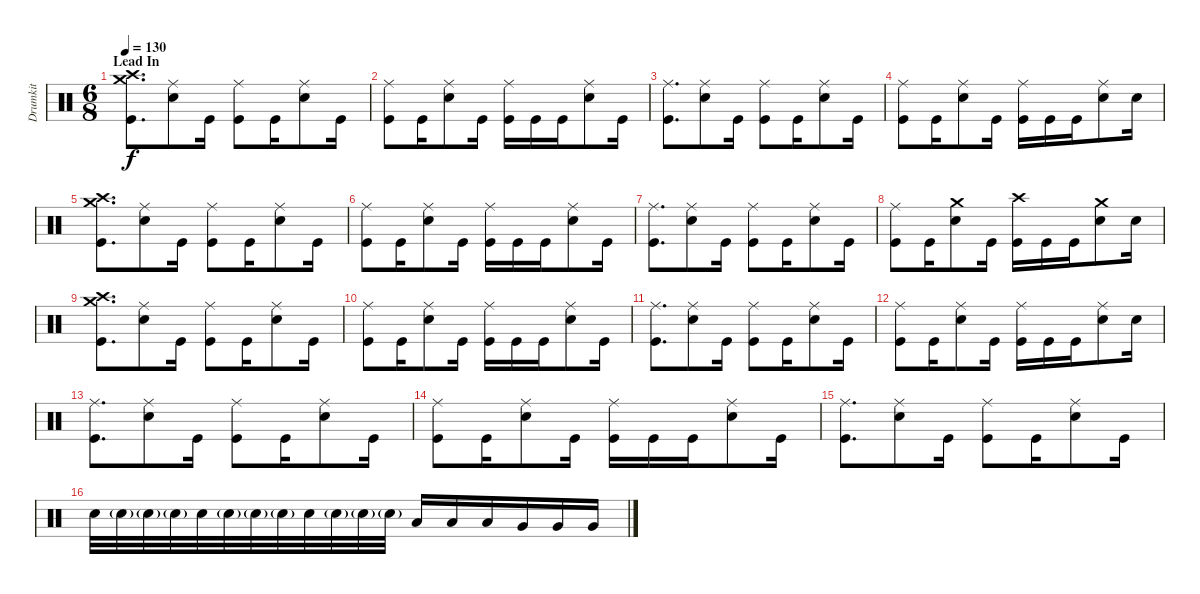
\track ("Drumkit" "Drumkit") {instrument percussion}
\staff {score}
\articulation defaults
\ts (6 8)
\section ("" "Lead In")
\tempo 130
\clef neutral
\ks c
("Kick (hit)" "Crash high (hit)" "Crash medium (hit)").8{d dy f} ("Snare (hit) 2" "Ride (middle)").8 "Kick (hit)".16 ("Kick (hit)" "Ride (middle)").8 "Kick (hit)".16 ("Snare (hit) 2" "Ride (middle)").8 "Kick (hit)".16 |
("Kick (hit)" "Ride (middle)").8 "Kick (hit)".16 ("Snare (hit) 2" "Ride (middle)").8 "Kick (hit)".16 ("Kick (hit)" "Ride (middle)").16 "Kick (hit)".16 "Kick (hit)".16 ("Snare (hit) 2" "Ride (middle)").8 "Kick (hit)".16 |
("Kick (hit)" "Ride (middle)").8{d} ("Snare (hit) 2" "Ride (middle)").8 "Kick (hit)".16 ("Kick (hit)" "Ride (middle)").8 "Kick (hit)".16 ("Snare (hit) 2" "Ride (middle)").8 "Kick (hit)".16 |
("Kick (hit)" "Ride (middle)").8 "Kick (hit)".16 ("Snare (hit) 2" "Ride (middle)").8 "Kick (hit)".16 ("Kick (hit)" "Ride (middle)").16 "Kick (hit)".16 "Kick (hit)".16 ("Snare (hit) 2" "Ride (middle)").8 "Snare (hit) 2".16 |
("Kick (hit)" "Crash high (hit)" "Crash medium (hit)").8{d} ("Snare (hit) 2" "Ride (middle)").8 "Kick (hit)".16 ("Kick (hit)" "Ride (middle)").8 "Kick (hit)".16 ("Snare (hit) 2" "Ride (middle)").8 "Kick (hit)".16 |
("Kick (hit)" "Ride (middle)").8 "Kick (hit)".16 ("Snare (hit) 2" "Ride (middle)").8 "Kick (hit)".16 ("Kick (hit)" "Ride (middle)").16 "Kick (hit)".16 "Kick (hit)".16 ("Snare (hit) 2" "Ride (middle)").8 "Kick (hit)".16 |
("Kick (hit)" "Ride (middle)").8{d} ("Snare (hit) 2" "Ride (middle)").8 "Kick (hit)".16 ("Kick (hit)" "Ride (middle)").8 "Kick (hit)".16 ("Snare (hit) 2" "Ride (middle)").8 "Kick (hit)".16 |
("Kick (hit)" "Ride (middle)").8 "Kick (hit)".16 ("Snare (hit) 2" "Crash medium (hit)").8 "Kick (hit)".16 ("Kick (hit)" "Crash high (hit)").16 "Kick (hit)".16 "Kick (hit)".16 ("Snare (hit) 2" "Crash medium (hit)").8 "Snare (hit) 2".16 |
("Kick (hit)" "Crash high (hit)" "Crash medium (hit)").8{d} ("Snare (hit) 2" "Ride (middle)").8 "Kick (hit)".16 ("Kick (hit)" "Ride (middle)").8 "Kick (hit)".16 ("Snare (hit) 2" "Ride (middle)").8 "Kick (hit)".16 |
("Kick (hit)" "Ride (middle)").8 "Kick (hit)".16 ("Snare (hit) 2" "Ride (middle)").8 "Kick (hit)".16 ("Kick (hit)" "Ride (middle)").16 "Kick (hit)".16 "Kick (hit)".16 ("Snare (hit) 2" "Ride (middle)").8 "Kick (hit)".16 |
("Kick (hit)" "Ride (middle)").8{d} ("Snare (hit) 2" "Ride (middle)").8 "Kick (hit)".16 ("Kick (hit)" "Ride (middle)").8 "Kick (hit)".16 ("Snare (hit) 2" "Ride (middle)").8 "Kick (hit)".16 |
("Kick (hit)" "Ride (middle)").8 "Kick (hit)".16 ("Snare (hit) 2" "Ride (middle)").8 "Kick (hit)".16 ("Kick (hit)" "Ride (middle)").16 "Kick (hit)".16 "Kick (hit)".16 ("Snare (hit) 2" "Ride (middle)").8 "Snare (hit) 2".16 |
("Kick (hit)" "Ride (middle)").8{d} ("Snare (hit) 2" "Ride (middle)").8 "Kick (hit)".16 ("Kick (hit)" "Ride (middle)").8 "Kick (hit)".16 ("Snare (hit) 2" "Ride (middle)").8 "Kick (hit)".16 |
("Kick (hit)" "Ride (middle)").8 "Kick (hit)".16 ("Snare (hit) 2" "Ride (middle)").8 "Kick (hit)".16 ("Kick (hit)" "Ride (middle)").16 "Kick (hit)".16 "Kick (hit)".16 ("Snare (hit) 2" "Ride (middle)").8 "Kick (hit)".16 |
("Kick (hit)" "Ride (middle)").8{d} ("Snare (hit) 2" "Ride (middle)").8 "Kick (hit)".16 ("Kick (hit)" "Ride (middle)").8 "Kick (hit)".16 ("Snare (hit) 2" "Ride (middle)").8 "Kick (hit)".16 |
"Snare (hit) 2".32 "Snare (hit) 2"{g}.32 "Snare (hit) 2"{g}.32 "Snare (hit) 2"{g}.32 "Snare (hit) 2".32 "Snare (hit) 2"{g}.32 "Snare (hit) 2"{g}.32 "Snare (hit) 2"{g}.32 "Snare (hit) 2".32 "Snare (hit) 2"{g}.32 "Snare (hit) 2"{g}.32 "Snare (hit) 2"{g}.32 "Low Tom (hit)".16 "Low Tom (hit)".16 "Low Tom (hit)".16 "Very Low Tom (hit)".16 "Very Low Tom (hit)".16 "Very Low Tom (hit)".16
